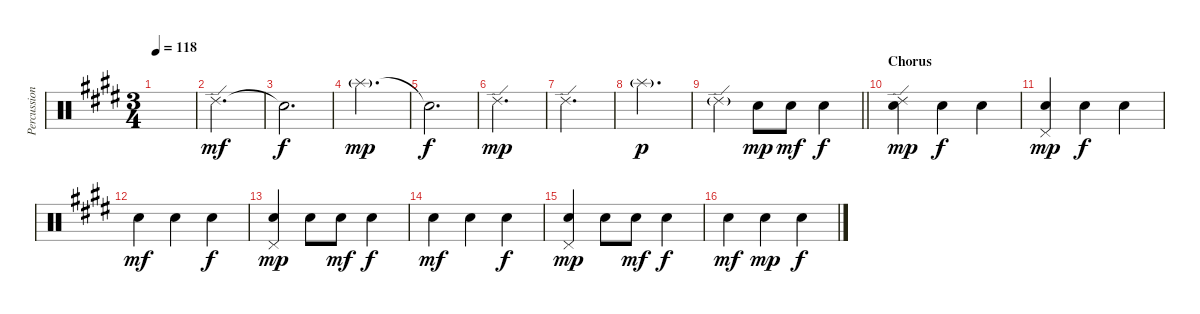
\track ("Percussion" "Percussion") {instrument percussion}
\staff {score}
\articulation defaults
\ts (3 4)
\tempo 118
\clef neutral
\ks e
|
"Ride (edge) 2".2{d dy mf} |
"Snare (hit)"{t}.2{d dy f} |
"Splash (hit)"{g}.2{d dy mp} |
"Snare (hit)"{t}.2{d dy f} |
"Ride (edge) 2".2{d dy mp} |
"Ride (edge) 2".2{d} |
"Splash (hit)"{g}.2{d dy p} |
\barLineRight lightlight "Ride (edge) 2"{g}.4 "Snare (hit) 2".8{dy mp} "Snare (hit) 2".8{dy mf} "Hand Clap (hit)".4{dy f}
|
\section ("" "Chorus")
("Snare (hit) 2" "Ride (edge) 2").4{dy mp} "Snare (hit) 2".4{dy f} "Snare (hit) 2".4 |
("Hand Clap (hit)" "Pedal Hi-Hat (hit)").4{dy mp} "Snare (hit) 2".4{dy f} "Snare (hit) 2".4 |
"Snare (hit) 2".4{dy mf} "Snare (hit) 2".4 "Snare (hit) 2".4{dy f} |
("Hand Clap (hit)" "Pedal Hi-Hat (hit)").4{dy mp} "Snare (hit) 2".8 "Snare (hit) 2".8{dy mf} "Snare (hit) 2".4{dy f} |
"Snare (hit) 2".4{dy mf} "Snare (hit) 2".4 "Snare (hit) 2".4{dy f} |
("Hand Clap (hit)" "Pedal Hi-Hat (hit)").4{dy mp} "Snare (hit) 2".8 "Snare (hit) 2".8{dy mf} "Snare (hit) 2".4{dy f} |
"Snare (hit) 2".4{dy mf} "Snare (hit) 2".4{dy mp} "Snare (hit) 2".4{dy f}
